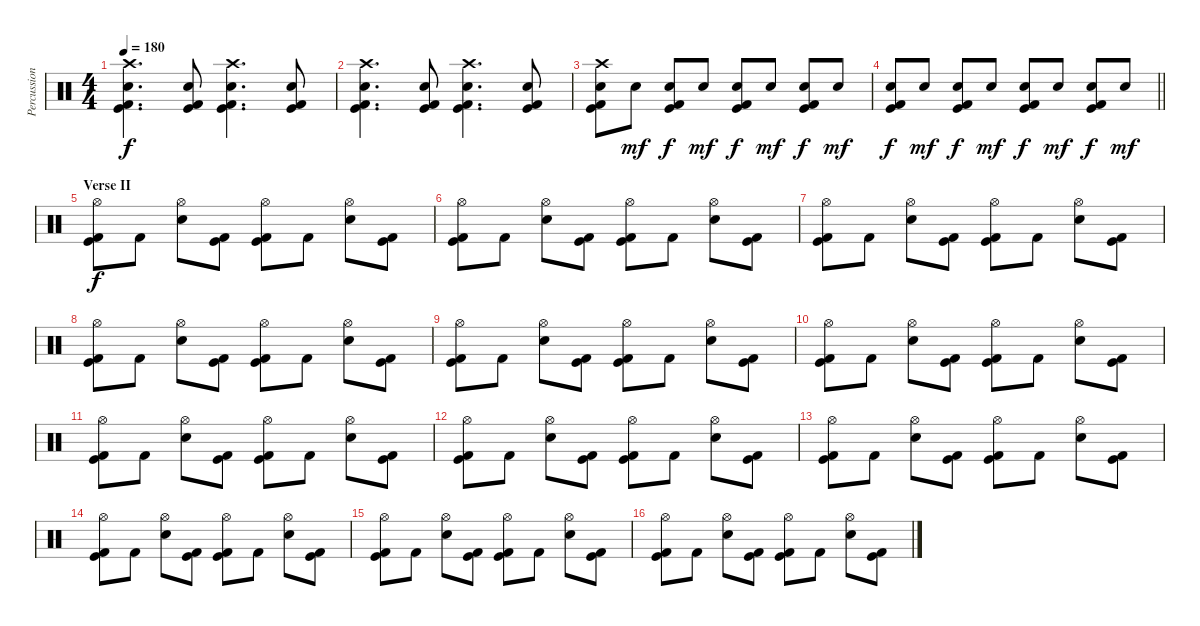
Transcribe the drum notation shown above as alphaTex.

\track ("Percussion" "Percussion") {instrument percussion}
\staff {score}
\articulation defaults
\ts (4 4)
\tempo 180
\clef neutral
\ks c
("Crash high (hit)" "Snare (hit) 2" "Kick (hit)" "Kick (hit) 2").4{d dy f} ("Snare (hit) 2" "Kick (hit)" "Kick (hit) 2").8 ("Crash high (hit)" "Snare (hit) 2" "Kick (hit)" "Kick (hit) 2").4{d} ("Snare (hit) 2" "Kick (hit)" "Kick (hit) 2").8 |
("Crash high (hit)" "Snare (hit) 2" "Kick (hit)" "Kick (hit) 2").4{d} ("Snare (hit) 2" "Kick (hit)" "Kick (hit) 2").8 ("Crash high (hit)" "Snare (hit) 2" "Kick (hit)" "Kick (hit) 2").4{d} ("Snare (hit) 2" "Kick (hit)" "Kick (hit) 2").8 |
("Crash high (hit)" "Snare (hit) 2" "Kick (hit)" "Kick (hit) 2").8 "Snare (hit) 2".8{dy mf} ("Snare (hit) 2" "Kick (hit)" "Kick (hit) 2").8{dy f} "Snare (hit) 2".8{dy mf} ("Snare (hit) 2" "Kick (hit)" "Kick (hit) 2").8{dy f} "Snare (hit) 2".8{dy mf} ("Snare (hit) 2" "Kick (hit)" "Kick (hit) 2").8{dy f} "Snare (hit) 2".8{dy mf} |
\barLineRight lightlight
("Snare (hit) 2" "Kick (hit)" "Kick (hit) 2").8{dy f} "Snare (hit) 2".8{dy mf} ("Snare (hit) 2" "Kick (hit)" "Kick (hit) 2").8{dy f} "Snare (hit) 2".8{dy mf} ("Snare (hit) 2" "Kick (hit)" "Kick (hit) 2").8{dy f} "Snare (hit) 2".8{dy mf} ("Snare (hit) 2" "Kick (hit)" "Kick (hit) 2").8{dy f} "Snare (hit) 2".8{dy mf} |
\section ("" "Verse II")
("Hi-Hat (open)" "Kick (hit)" "Kick (hit) 2").8{dy f} "Kick (hit) 2".8 ("Hi-Hat (open)" "Snare (hit) 2").8 ("Kick (hit)" "Kick (hit) 2").8 ("Hi-Hat (open)" "Kick (hit)" "Kick (hit) 2").8 "Kick (hit) 2".8 ("Hi-Hat (open)" "Snare (hit) 2").8 ("Kick (hit)" "Kick (hit) 2").8 |
("Hi-Hat (open)" "Kick (hit)" "Kick (hit) 2").8 "Kick (hit) 2".8 ("Hi-Hat (open)" "Snare (hit) 2").8 ("Kick (hit)" "Kick (hit) 2").8 ("Hi-Hat (open)" "Kick (hit)" "Kick (hit) 2").8 "Kick (hit) 2".8 ("Hi-Hat (open)" "Snare (hit) 2").8 ("Kick (hit)" "Kick (hit) 2").8 |
("Hi-Hat (open)" "Kick (hit)" "Kick (hit) 2").8 "Kick (hit) 2".8 ("Hi-Hat (open)" "Snare (hit) 2").8 ("Kick (hit)" "Kick (hit) 2").8 ("Hi-Hat (open)" "Kick (hit)" "Kick (hit) 2").8 "Kick (hit) 2".8 ("Hi-Hat (open)" "Snare (hit) 2").8 ("Kick (hit)" "Kick (hit) 2").8 |
("Hi-Hat (open)" "Kick (hit)" "Kick (hit) 2").8 "Kick (hit) 2".8 ("Hi-Hat (open)" "Snare (hit) 2").8 ("Kick (hit)" "Kick (hit) 2").8 ("Hi-Hat (open)" "Kick (hit)" "Kick (hit) 2").8 "Kick (hit) 2".8 ("Hi-Hat (open)" "Snare (hit) 2").8 ("Kick (hit)" "Kick (hit) 2").8 |
("Hi-Hat (open)" "Kick (hit)" "Kick (hit) 2").8 "Kick (hit) 2".8 ("Hi-Hat (open)" "Snare (hit) 2").8 ("Kick (hit)" "Kick (hit) 2").8 ("Hi-Hat (open)" "Kick (hit)" "Kick (hit) 2").8 "Kick (hit) 2".8 ("Hi-Hat (open)" "Snare (hit) 2").8 ("Kick (hit)" "Kick (hit) 2").8 |
("Hi-Hat (open)" "Kick (hit)" "Kick (hit) 2").8 "Kick (hit) 2".8 ("Hi-Hat (open)" "Snare (hit) 2").8 ("Kick (hit)" "Kick (hit) 2").8 ("Hi-Hat (open)" "Kick (hit)" "Kick (hit) 2").8 "Kick (hit) 2".8 ("Hi-Hat (open)" "Snare (hit) 2").8 ("Kick (hit)" "Kick (hit) 2").8 |
("Hi-Hat (open)" "Kick (hit)" "Kick (hit) 2").8 "Kick (hit) 2".8 ("Hi-Hat (open)" "Snare (hit) 2").8 ("Kick (hit)" "Kick (hit) 2").8 ("Hi-Hat (open)" "Kick (hit)" "Kick (hit) 2").8 "Kick (hit) 2".8 ("Hi-Hat (open)" "Snare (hit) 2").8 ("Kick (hit)" "Kick (hit) 2").8 |
("Hi-Hat (open)" "Kick (hit)" "Kick (hit) 2").8 "Kick (hit) 2".8 ("Hi-Hat (open)" "Snare (hit) 2").8 ("Kick (hit)" "Kick (hit) 2").8 ("Hi-Hat (open)" "Kick (hit)" "Kick (hit) 2").8 "Kick (hit) 2".8 ("Hi-Hat (open)" "Snare (hit) 2").8 ("Kick (hit)" "Kick (hit) 2").8 |
("Hi-Hat (open)" "Kick (hit)" "Kick (hit) 2").8 "Kick (hit) 2".8 ("Hi-Hat (open)" "Snare (hit) 2").8 ("Kick (hit)" "Kick (hit) 2").8 ("Hi-Hat (open)" "Kick (hit)" "Kick (hit) 2").8 "Kick (hit) 2".8 ("Hi-Hat (open)" "Snare (hit) 2").8 ("Kick (hit)" "Kick (hit) 2").8 |
("Hi-Hat (open)" "Kick (hit)" "Kick (hit) 2").8 "Kick (hit) 2".8 ("Hi-Hat (open)" "Snare (hit) 2").8 ("Kick (hit)" "Kick (hit) 2").8 ("Hi-Hat (open)" "Kick (hit)" "Kick (hit) 2").8 "Kick (hit) 2".8 ("Hi-Hat (open)" "Snare (hit) 2").8 ("Kick (hit)" "Kick (hit) 2").8 |
("Hi-Hat (open)" "Kick (hit)" "Kick (hit) 2").8 "Kick (hit) 2".8 ("Hi-Hat (open)" "Snare (hit) 2").8 ("Kick (hit)" "Kick (hit) 2").8 ("Hi-Hat (open)" "Kick (hit)" "Kick (hit) 2").8 "Kick (hit) 2".8 ("Hi-Hat (open)" "Snare (hit) 2").8 ("Kick (hit)" "Kick (hit) 2").8 |
("Hi-Hat (open)" "Kick (hit)" "Kick (hit) 2").8 "Kick (hit) 2".8 ("Hi-Hat (open)" "Snare (hit) 2").8 ("Kick (hit)" "Kick (hit) 2").8 ("Hi-Hat (open)" "Kick (hit)" "Kick (hit) 2").8 "Kick (hit) 2".8 ("Hi-Hat (open)" "Snare (hit) 2").8 ("Kick (hit)" "Kick (hit) 2").8
